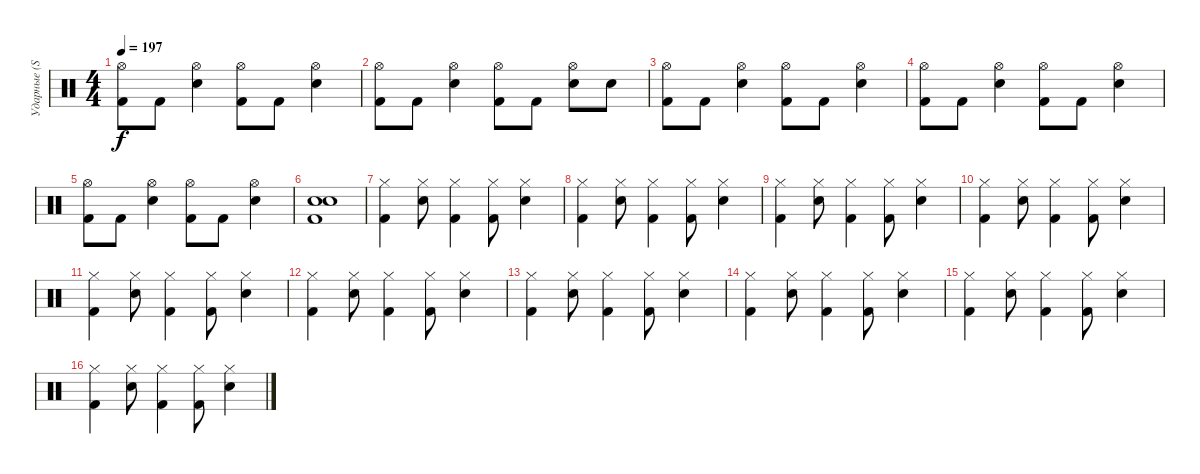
\track ("Ударные (Stevo32)" "Ударные (S") {instrument percussion}
\staff {score}
\articulation defaults
\ts (4 4)
\tempo 197
\clef neutral
\ks c
("Hi-Hat (open)" "Kick (hit) 2").8{dy f} "Kick (hit) 2".8 ("Hi-Hat (open)" "Snare (hit) 2").4 ("Hi-Hat (open)" "Kick (hit) 2").8 "Kick (hit) 2".8 ("Hi-Hat (open)" "Snare (hit) 2").4 |
("Hi-Hat (open)" "Kick (hit) 2").8 "Kick (hit) 2".8 ("Hi-Hat (open)" "Snare (hit) 2").4 ("Hi-Hat (open)" "Kick (hit) 2").8 "Kick (hit) 2".8 ("Hi-Hat (open)" "Snare (hit) 2").8 "Snare (hit) 2".8 |
("Hi-Hat (open)" "Kick (hit) 2").8 "Kick (hit) 2".8 ("Hi-Hat (open)" "Snare (hit) 2").4 ("Hi-Hat (open)" "Kick (hit) 2").8 "Kick (hit) 2".8 ("Hi-Hat (open)" "Snare (hit) 2").4 |
("Hi-Hat (open)" "Kick (hit) 2").8 "Kick (hit) 2".8 ("Hi-Hat (open)" "Snare (hit) 2").4 ("Hi-Hat (open)" "Kick (hit) 2").8 "Kick (hit) 2".8 ("Hi-Hat (open)" "Snare (hit) 2").4 |
("Hi-Hat (open)" "Kick (hit) 2").8 "Kick (hit) 2".8 ("Hi-Hat (open)" "Snare (hit) 2").4 ("Hi-Hat (open)" "Kick (hit) 2").8 "Kick (hit) 2".8 ("Hi-Hat (open)" "Snare (hit) 2").4 |
("Electric Snare (hit)" "Snare (hit) 2" "Kick (hit) 2").1 |
("Hi-Hat (closed)" "Kick (hit) 2").4 ("Hi-Hat (closed)" "Snare (hit) 2").8 ("Hi-Hat (closed)" "Kick (hit) 2").4 ("Hi-Hat (closed)" "Kick (hit) 2").8 ("Hi-Hat (closed)" "Snare (hit) 2").4 |
("Hi-Hat (closed)" "Kick (hit) 2").4 ("Hi-Hat (closed)" "Snare (hit) 2").8 ("Hi-Hat (closed)" "Kick (hit) 2").4 ("Hi-Hat (closed)" "Kick (hit) 2").8 ("Hi-Hat (closed)" "Snare (hit) 2").4 |
("Hi-Hat (closed)" "Kick (hit) 2").4 ("Hi-Hat (closed)" "Snare (hit) 2").8 ("Hi-Hat (closed)" "Kick (hit) 2").4 ("Hi-Hat (closed)" "Kick (hit) 2").8 ("Hi-Hat (closed)" "Snare (hit) 2").4 |
("Hi-Hat (closed)" "Kick (hit) 2").4 ("Hi-Hat (closed)" "Snare (hit) 2").8 ("Hi-Hat (closed)" "Kick (hit) 2").4 ("Hi-Hat (closed)" "Kick (hit) 2").8 ("Hi-Hat (closed)" "Snare (hit) 2").4 |
("Hi-Hat (closed)" "Kick (hit) 2").4 ("Hi-Hat (closed)" "Snare (hit) 2").8 ("Hi-Hat (closed)" "Kick (hit) 2").4 ("Hi-Hat (closed)" "Kick (hit) 2").8 ("Hi-Hat (closed)" "Snare (hit) 2").4 |
("Hi-Hat (closed)" "Kick (hit) 2").4 ("Hi-Hat (closed)" "Snare (hit) 2").8 ("Hi-Hat (closed)" "Kick (hit) 2").4 ("Hi-Hat (closed)" "Kick (hit) 2").8 ("Hi-Hat (closed)" "Snare (hit) 2").4 |
("Hi-Hat (closed)" "Kick (hit) 2").4 ("Hi-Hat (closed)" "Snare (hit) 2").8 ("Hi-Hat (closed)" "Kick (hit) 2").4 ("Hi-Hat (closed)" "Kick (hit) 2").8 ("Hi-Hat (closed)" "Snare (hit) 2").4 |
("Hi-Hat (closed)" "Kick (hit) 2").4 ("Hi-Hat (closed)" "Snare (hit) 2").8 ("Hi-Hat (closed)" "Kick (hit) 2").4 ("Hi-Hat (closed)" "Kick (hit) 2").8 ("Hi-Hat (closed)" "Snare (hit) 2").4 |
("Hi-Hat (closed)" "Kick (hit) 2").4 ("Hi-Hat (closed)" "Snare (hit) 2").8 ("Hi-Hat (closed)" "Kick (hit) 2").4 ("Hi-Hat (closed)" "Kick (hit) 2").8 ("Hi-Hat (closed)" "Snare (hit) 2").4 |
("Hi-Hat (closed)" "Kick (hit) 2").4 ("Hi-Hat (closed)" "Snare (hit) 2").8 ("Hi-Hat (closed)" "Kick (hit) 2").4 ("Hi-Hat (closed)" "Kick (hit) 2").8 ("Hi-Hat (closed)" "Snare (hit) 2").4
